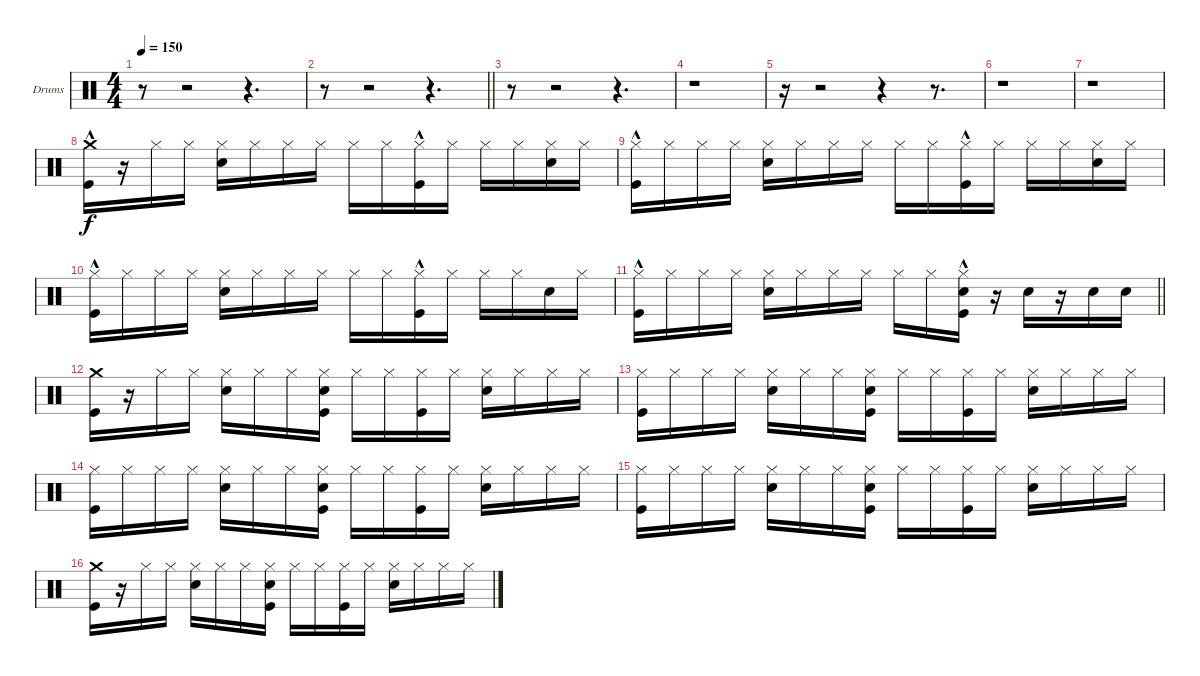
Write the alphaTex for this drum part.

\bracketExtendMode groupsimilarinstruments
\firstSystemTrackNameOrientation horizontal
\otherSystemsTrackNameOrientation horizontal
\track ("Drumkit" "Drums") {instrument percussion}
\staff {score}
\articulation defaults
\ts (4 4)
\tempo 150
\clef neutral
\ks c
r.8{dy f} r.2 r.4{d} |
\barLineRight lightlight
r.8 r.2 r.4{d} |
\section ("" "")
r.8 r.2 r.4{d} |
r.1 |
r.16 r.2 r.4 r.8{d} |
r.1 |
r.1 |
("Crash medium (hit)" "Kick (hit)"{hac}).16 r.16 "Hi-Hat (closed)".16 "Hi-Hat (closed)".16 ("Hi-Hat (closed)" "Snare (hit) 2").16 "Hi-Hat (closed)".16 "Hi-Hat (closed)".16 "Hi-Hat (closed)".16 "Hi-Hat (closed)".16 "Hi-Hat (closed)".16 ("Hi-Hat (closed)" "Kick (hit)"{hac}).16 "Hi-Hat (closed)".16 "Hi-Hat (closed)".16 "Hi-Hat (closed)".16 ("Hi-Hat (closed)" "Snare (hit) 2").16 "Hi-Hat (closed)".16 |
("Hi-Hat (closed)" "Kick (hit)"{hac}).16 "Hi-Hat (closed)".16 "Hi-Hat (closed)".16 "Hi-Hat (closed)".16 ("Hi-Hat (closed)" "Snare (hit) 2").16 "Hi-Hat (closed)".16 "Hi-Hat (closed)".16 "Hi-Hat (closed)".16 "Hi-Hat (closed)".16 "Hi-Hat (closed)".16 ("Hi-Hat (closed)" "Kick (hit)"{hac}).16 "Hi-Hat (closed)".16 "Hi-Hat (closed)".16 "Hi-Hat (closed)".16 ("Hi-Hat (closed)" "Snare (hit) 2").16 "Hi-Hat (closed)".16 |
("Hi-Hat (closed)" "Kick (hit)"{hac}).16 "Hi-Hat (closed)".16 "Hi-Hat (closed)".16 "Hi-Hat (closed)".16 ("Hi-Hat (closed)" "Snare (hit) 2").16 "Hi-Hat (closed)".16 "Hi-Hat (closed)".16 "Hi-Hat (closed)".16 "Hi-Hat (closed)".16 "Hi-Hat (closed)".16 ("Hi-Hat (closed)" "Kick (hit)"{hac}).16 "Hi-Hat (closed)".16 "Hi-Hat (closed)".16 "Hi-Hat (closed)".16 "Snare (hit) 2".16 "Hi-Hat (closed)".16 |
\barLineRight lightlight
("Hi-Hat (closed)" "Kick (hit)"{hac}).16 "Hi-Hat (closed)".16 "Hi-Hat (closed)".16 "Hi-Hat (closed)".16 ("Hi-Hat (closed)" "Snare (hit) 2").16 "Hi-Hat (closed)".16 "Hi-Hat (closed)".16 "Hi-Hat (closed)".16 "Hi-Hat (closed)".16 "Hi-Hat (closed)".16 ("Hi-Hat (closed)" "Snare (hit) 2" "Kick (hit)"{hac}).16 r.16 "Snare (hit) 2".16 r.16 "Snare (hit) 2".16 "Snare (hit) 2".16 |
\section ("" "")
("Crash medium (hit)" "Kick (hit)").16 r.16 "Hi-Hat (closed)".16 "Hi-Hat (closed)".16 ("Hi-Hat (closed)" "Snare (hit) 2").16 "Hi-Hat (closed)".16 "Hi-Hat (closed)".16 ("Hi-Hat (closed)" "Snare (hit) 2" "Kick (hit)").16 "Hi-Hat (closed)".16 "Hi-Hat (closed)".16 ("Hi-Hat (closed)" "Kick (hit)").16 "Hi-Hat (closed)".16 ("Hi-Hat (closed)" "Snare (hit) 2").16 "Hi-Hat (closed)".16 "Hi-Hat (closed)".16 "Hi-Hat (closed)".16 |
("Hi-Hat (closed)" "Kick (hit)").16 "Hi-Hat (closed)".16 "Hi-Hat (closed)".16 "Hi-Hat (closed)".16 ("Hi-Hat (closed)" "Snare (hit) 2").16 "Hi-Hat (closed)".16 "Hi-Hat (closed)".16 ("Hi-Hat (closed)" "Snare (hit) 2" "Kick (hit)").16 "Hi-Hat (closed)".16 "Hi-Hat (closed)".16 ("Hi-Hat (closed)" "Kick (hit)").16 "Hi-Hat (closed)".16 ("Hi-Hat (closed)" "Snare (hit) 2").16 "Hi-Hat (closed)".16 "Hi-Hat (closed)".16 "Hi-Hat (closed)".16 |
("Hi-Hat (closed)" "Kick (hit)").16 "Hi-Hat (closed)".16 "Hi-Hat (closed)".16 "Hi-Hat (closed)".16 ("Hi-Hat (closed)" "Snare (hit) 2").16 "Hi-Hat (closed)".16 "Hi-Hat (closed)".16 ("Hi-Hat (closed)" "Snare (hit) 2" "Kick (hit)").16 "Hi-Hat (closed)".16 "Hi-Hat (closed)".16 ("Hi-Hat (closed)" "Kick (hit)").16 "Hi-Hat (closed)".16 ("Hi-Hat (closed)" "Snare (hit) 2").16 "Hi-Hat (closed)".16 "Hi-Hat (closed)".16 "Hi-Hat (closed)".16 |
("Hi-Hat (closed)" "Kick (hit)").16 "Hi-Hat (closed)".16 "Hi-Hat (closed)".16 "Hi-Hat (closed)".16 ("Hi-Hat (closed)" "Snare (hit) 2").16 "Hi-Hat (closed)".16 "Hi-Hat (closed)".16 ("Hi-Hat (closed)" "Snare (hit) 2" "Kick (hit)").16 "Hi-Hat (closed)".16 "Hi-Hat (closed)".16 ("Hi-Hat (closed)" "Kick (hit)").16 "Hi-Hat (closed)".16 ("Hi-Hat (closed)" "Snare (hit) 2").16 "Hi-Hat (closed)".16 "Hi-Hat (closed)".16 "Hi-Hat (closed)".16 |
("Crash medium (hit)" "Kick (hit)").16 r.16 "Hi-Hat (closed)".16 "Hi-Hat (closed)".16 ("Hi-Hat (closed)" "Snare (hit) 2").16 "Hi-Hat (closed)".16 "Hi-Hat (closed)".16 ("Hi-Hat (closed)" "Snare (hit) 2" "Kick (hit)").16 "Hi-Hat (closed)".16 "Hi-Hat (closed)".16 ("Hi-Hat (closed)" "Kick (hit)").16 "Hi-Hat (closed)".16 ("Hi-Hat (closed)" "Snare (hit) 2").16 "Hi-Hat (closed)".16 "Hi-Hat (closed)".16 "Hi-Hat (closed)".16
